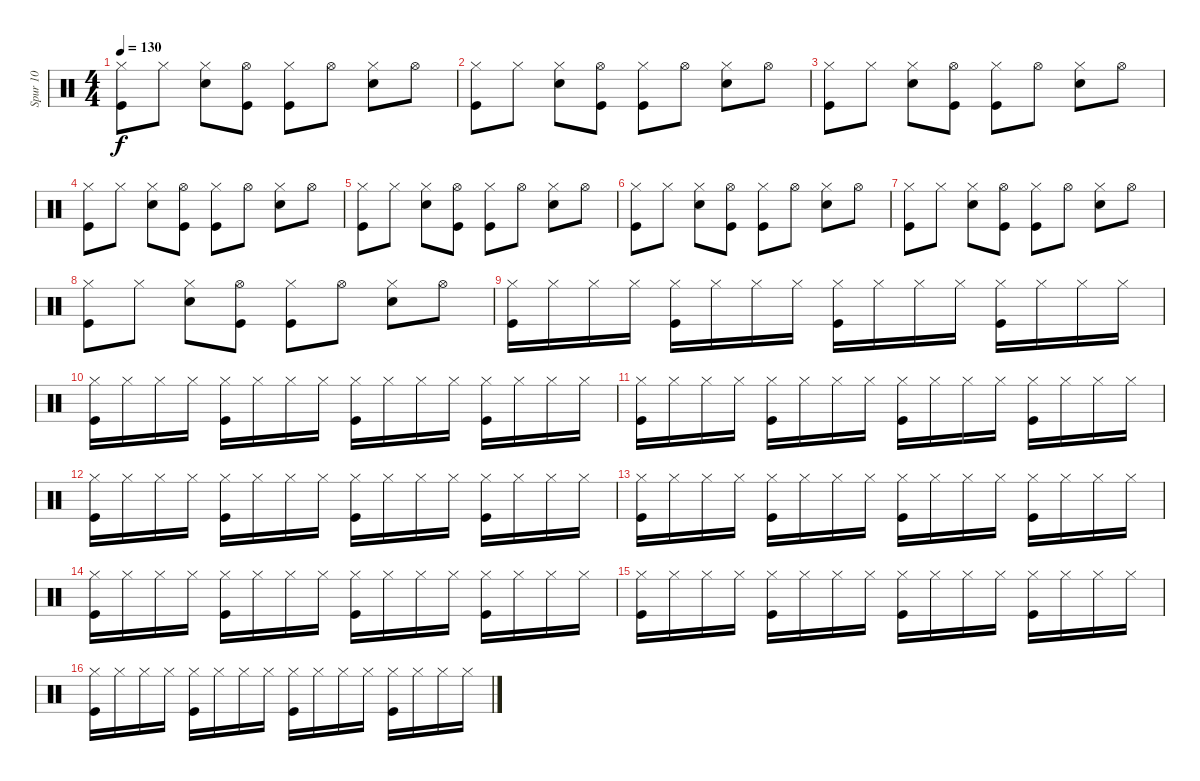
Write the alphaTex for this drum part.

\track ("Spur 10" "Spur 10") {instrument percussion}
\staff {score}
\articulation defaults
\ts (4 4)
\tempo 130
\clef neutral
\ks c
("Kick (hit)" "Hi-Hat (closed)").8{dy f} "Hi-Hat (closed)".8 ("Snare (hit) 2" "Hi-Hat (closed)").8 ("Kick (hit)" "Hi-Hat (open)").8 ("Kick (hit)" "Hi-Hat (closed)").8 "Hi-Hat (open)".8 ("Snare (hit) 2" "Hi-Hat (closed)").8 "Hi-Hat (open)".8 |
("Kick (hit)" "Hi-Hat (closed)").8 "Hi-Hat (closed)".8 ("Snare (hit) 2" "Hi-Hat (closed)").8 ("Kick (hit)" "Hi-Hat (open)").8 ("Kick (hit)" "Hi-Hat (closed)").8 "Hi-Hat (open)".8 ("Snare (hit) 2" "Hi-Hat (closed)").8 "Hi-Hat (open)".8 |
("Kick (hit)" "Hi-Hat (closed)").8 "Hi-Hat (closed)".8 ("Snare (hit) 2" "Hi-Hat (closed)").8 ("Kick (hit)" "Hi-Hat (open)").8 ("Kick (hit)" "Hi-Hat (closed)").8 "Hi-Hat (open)".8 ("Snare (hit) 2" "Hi-Hat (closed)").8 "Hi-Hat (open)".8 |
("Kick (hit)" "Hi-Hat (closed)").8 "Hi-Hat (closed)".8 ("Snare (hit) 2" "Hi-Hat (closed)").8 ("Kick (hit)" "Hi-Hat (open)").8 ("Kick (hit)" "Hi-Hat (closed)").8 "Hi-Hat (open)".8 ("Snare (hit) 2" "Hi-Hat (closed)").8 "Hi-Hat (open)".8 |
("Kick (hit)" "Hi-Hat (closed)").8 "Hi-Hat (closed)".8 ("Snare (hit) 2" "Hi-Hat (closed)").8 ("Kick (hit)" "Hi-Hat (open)").8 ("Kick (hit)" "Hi-Hat (closed)").8 "Hi-Hat (open)".8 ("Snare (hit) 2" "Hi-Hat (closed)").8 "Hi-Hat (open)".8 |
("Kick (hit)" "Hi-Hat (closed)").8 "Hi-Hat (closed)".8 ("Snare (hit) 2" "Hi-Hat (closed)").8 ("Kick (hit)" "Hi-Hat (open)").8 ("Kick (hit)" "Hi-Hat (closed)").8 "Hi-Hat (open)".8 ("Snare (hit) 2" "Hi-Hat (closed)").8 "Hi-Hat (open)".8 |
("Kick (hit)" "Hi-Hat (closed)").8 "Hi-Hat (closed)".8 ("Snare (hit) 2" "Hi-Hat (closed)").8 ("Kick (hit)" "Hi-Hat (open)").8 ("Kick (hit)" "Hi-Hat (closed)").8 "Hi-Hat (open)".8 ("Snare (hit) 2" "Hi-Hat (closed)").8 "Hi-Hat (open)".8 |
("Kick (hit)" "Hi-Hat (closed)").8 "Hi-Hat (closed)".8 ("Snare (hit) 2" "Hi-Hat (closed)").8 ("Kick (hit)" "Hi-Hat (open)").8 ("Kick (hit)" "Hi-Hat (closed)").8 "Hi-Hat (open)".8 ("Snare (hit) 2" "Hi-Hat (closed)").8 "Hi-Hat (open)".8 |
("Hi-Hat (closed)" "Kick (hit)").16 "Hi-Hat (closed)".16 "Hi-Hat (closed)".16 "Hi-Hat (closed)".16 ("Hi-Hat (closed)" "Kick (hit)").16 "Hi-Hat (closed)".16 "Hi-Hat (closed)".16 "Hi-Hat (closed)".16 ("Hi-Hat (closed)" "Kick (hit)").16 "Hi-Hat (closed)".16 "Hi-Hat (closed)".16 "Hi-Hat (closed)".16 ("Hi-Hat (closed)" "Kick (hit)").16 "Hi-Hat (closed)".16 "Hi-Hat (closed)".16 "Hi-Hat (closed)".16 |
("Hi-Hat (closed)" "Kick (hit)").16 "Hi-Hat (closed)".16 "Hi-Hat (closed)".16 "Hi-Hat (closed)".16 ("Hi-Hat (closed)" "Kick (hit)").16 "Hi-Hat (closed)".16 "Hi-Hat (closed)".16 "Hi-Hat (closed)".16 ("Hi-Hat (closed)" "Kick (hit)").16 "Hi-Hat (closed)".16 "Hi-Hat (closed)".16 "Hi-Hat (closed)".16 ("Hi-Hat (closed)" "Kick (hit)").16 "Hi-Hat (closed)".16 "Hi-Hat (closed)".16 "Hi-Hat (closed)".16 |
("Hi-Hat (closed)" "Kick (hit)").16 "Hi-Hat (closed)".16 "Hi-Hat (closed)".16 "Hi-Hat (closed)".16 ("Hi-Hat (closed)" "Kick (hit)").16 "Hi-Hat (closed)".16 "Hi-Hat (closed)".16 "Hi-Hat (closed)".16 ("Hi-Hat (closed)" "Kick (hit)").16 "Hi-Hat (closed)".16 "Hi-Hat (closed)".16 "Hi-Hat (closed)".16 ("Hi-Hat (closed)" "Kick (hit)").16 "Hi-Hat (closed)".16 "Hi-Hat (closed)".16 "Hi-Hat (closed)".16 |
("Hi-Hat (closed)" "Kick (hit)").16 "Hi-Hat (closed)".16 "Hi-Hat (closed)".16 "Hi-Hat (closed)".16 ("Hi-Hat (closed)" "Kick (hit)").16 "Hi-Hat (closed)".16 "Hi-Hat (closed)".16 "Hi-Hat (closed)".16 ("Hi-Hat (closed)" "Kick (hit)").16 "Hi-Hat (closed)".16 "Hi-Hat (closed)".16 "Hi-Hat (closed)".16 ("Hi-Hat (closed)" "Kick (hit)").16 "Hi-Hat (closed)".16 "Hi-Hat (closed)".16 "Hi-Hat (closed)".16 |
("Hi-Hat (closed)" "Kick (hit)").16 "Hi-Hat (closed)".16 "Hi-Hat (closed)".16 "Hi-Hat (closed)".16 ("Hi-Hat (closed)" "Kick (hit)").16 "Hi-Hat (closed)".16 "Hi-Hat (closed)".16 "Hi-Hat (closed)".16 ("Hi-Hat (closed)" "Kick (hit)").16 "Hi-Hat (closed)".16 "Hi-Hat (closed)".16 "Hi-Hat (closed)".16 ("Hi-Hat (closed)" "Kick (hit)").16 "Hi-Hat (closed)".16 "Hi-Hat (closed)".16 "Hi-Hat (closed)".16 |
("Hi-Hat (closed)" "Kick (hit)").16 "Hi-Hat (closed)".16 "Hi-Hat (closed)".16 "Hi-Hat (closed)".16 ("Hi-Hat (closed)" "Kick (hit)").16 "Hi-Hat (closed)".16 "Hi-Hat (closed)".16 "Hi-Hat (closed)".16 ("Hi-Hat (closed)" "Kick (hit)").16 "Hi-Hat (closed)".16 "Hi-Hat (closed)".16 "Hi-Hat (closed)".16 ("Hi-Hat (closed)" "Kick (hit)").16 "Hi-Hat (closed)".16 "Hi-Hat (closed)".16 "Hi-Hat (closed)".16 |
("Hi-Hat (closed)" "Kick (hit)").16 "Hi-Hat (closed)".16 "Hi-Hat (closed)".16 "Hi-Hat (closed)".16 ("Hi-Hat (closed)" "Kick (hit)").16 "Hi-Hat (closed)".16 "Hi-Hat (closed)".16 "Hi-Hat (closed)".16 ("Hi-Hat (closed)" "Kick (hit)").16 "Hi-Hat (closed)".16 "Hi-Hat (closed)".16 "Hi-Hat (closed)".16 ("Hi-Hat (closed)" "Kick (hit)").16 "Hi-Hat (closed)".16 "Hi-Hat (closed)".16 "Hi-Hat (closed)".16 |
("Hi-Hat (closed)" "Kick (hit)").16 "Hi-Hat (closed)".16 "Hi-Hat (closed)".16 "Hi-Hat (closed)".16 ("Hi-Hat (closed)" "Kick (hit)").16 "Hi-Hat (closed)".16 "Hi-Hat (closed)".16 "Hi-Hat (closed)".16 ("Hi-Hat (closed)" "Kick (hit)").16 "Hi-Hat (closed)".16 "Hi-Hat (closed)".16 "Hi-Hat (closed)".16 ("Hi-Hat (closed)" "Kick (hit)").16 "Hi-Hat (closed)".16 "Hi-Hat (closed)".16 "Hi-Hat (closed)".16
